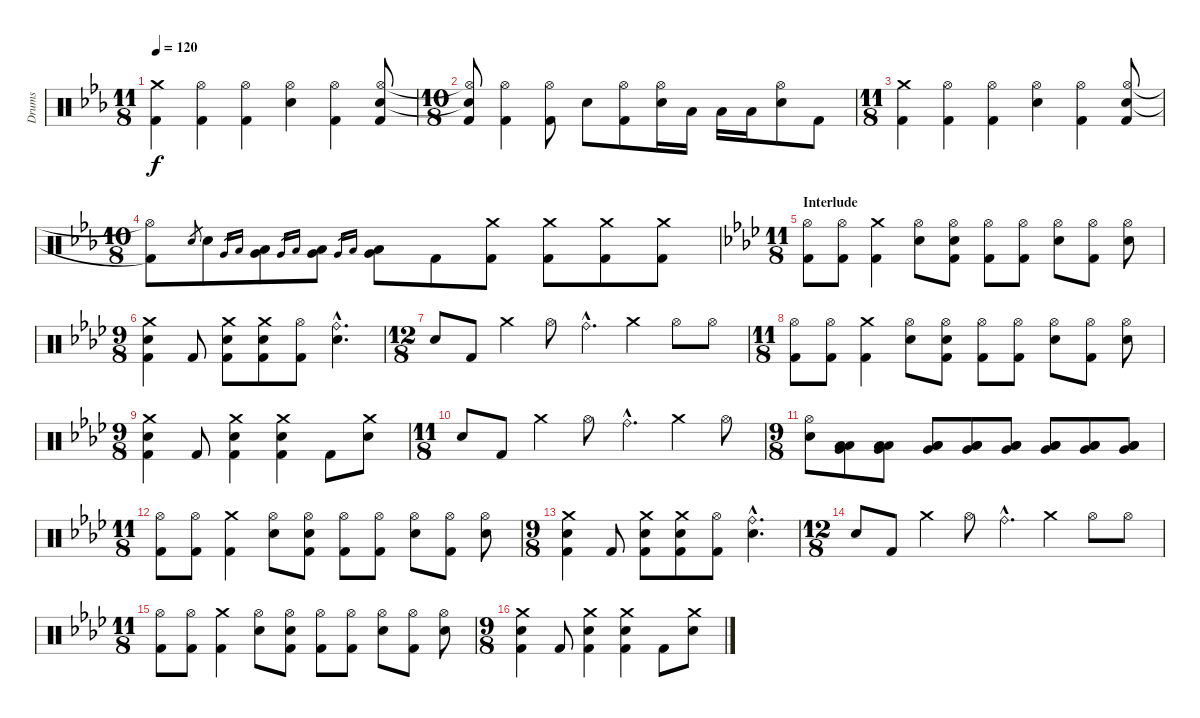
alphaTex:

\track ("Drums" "Drums") {instrument percussion}
\staff {score}
\articulation defaults
\ts (11 8)
\tempo 120
\clef neutral
\ks eb
("Crash medium (hit)" "Kick (hit) 2").4{dy f} ("Hi-Hat (open)" "Kick (hit) 2").4 ("Hi-Hat (open)" "Kick (hit) 2").4 ("Hi-Hat (open)" "Electric Snare (hit)").4 ("Hi-Hat (open)" "Kick (hit) 2").4 ("Hi-Hat (open)" "Electric Snare (hit)" "Kick (hit) 2").8 |
\ts (10 8)
("Hi-Hat (open)"{t} "Snare (hit)"{t} "Kick (hit) 2").8 ("Hi-Hat (open)" "Kick (hit) 2").4 ("Hi-Hat (open)" "Kick (hit) 2").8 "Electric Snare (hit)".8 ("Hi-Hat (open)" "Kick (hit) 2").8 ("Hi-Hat (open)" "Electric Snare (hit)").16 "Low Tom (hit)".16 "Low Tom (hit)".16 "Low Tom (hit)".16 ("Hi-Hat (open)" "Electric Snare (hit)").8 "Kick (hit) 2".8 |
\ts (11 8)
("Crash medium (hit)" "Kick (hit) 2").4 ("Hi-Hat (open)" "Kick (hit) 2").4 ("Hi-Hat (open)" "Kick (hit) 2").4 ("Hi-Hat (open)" "Electric Snare (hit)").4 ("Hi-Hat (open)" "Kick (hit) 2").4 ("Hi-Hat (open)" "Electric Snare (hit)" "Kick (hit) 2").8 |
\ts (10 8)
("Hi-Hat (open)"{t} "Kick (hit) 2"{t}).8 "Electric Snare (hit)".8{gr} "Electric Snare (hit)".8 "Very Low Tom (hit)".16{gr} "Low Tom (hit)".16{gr} ("Low Tom (hit)" "Very Low Tom (hit)").8 "Very Low Tom (hit)".16{gr} "Low Tom (hit)".16{gr} ("Low Tom (hit)" "Very Low Tom (hit)").8 "Very Low Tom (hit)".16{gr} "Low Tom (hit)".16{gr} ("Low Tom (hit)" "Very Low Tom (hit)").8 "Kick (hit) 2".8 ("Crash medium (hit)" "Kick (hit) 2").8 ("Crash medium (hit)" "Kick (hit) 2").8 ("Crash medium (hit)" "Kick (hit) 2").8 ("Crash medium (hit)" "Kick (hit) 2").8 |
\ts (11 8)
\section ("" "Interlude")
\ks ab
("Hi-Hat (open)" "Kick (hit) 2").8 ("Hi-Hat (open)" "Kick (hit) 2").8 ("Crash medium (hit)" "Kick (hit) 2").4 ("Hi-Hat (open)" "Electric Snare (hit)").8 ("Hi-Hat (open)" "Electric Snare (hit)" "Kick (hit) 2").8 ("Hi-Hat (open)" "Kick (hit) 2").8 ("Hi-Hat (open)" "Kick (hit) 2").8 ("Hi-Hat (open)" "Electric Snare (hit)").8 ("Hi-Hat (open)" "Kick (hit) 2").8 ("Hi-Hat (open)" "Electric Snare (hit)").8 |
\ts (9 8)
("Crash medium (hit)" "Electric Snare (hit)" "Kick (hit) 2").4 "Kick (hit) 2".8 ("Crash medium (hit)" "Electric Snare (hit)" "Kick (hit) 2").8 ("Crash medium (hit)" "Electric Snare (hit)" "Kick (hit) 2").8 ("Hi-Hat (open)" "Kick (hit) 2").8 ("Ride (bell)"{hac} "Electric Snare (hit)"{hac}).4{d} |
\ts (12 8)
"Electric Snare (hit)".8 "Kick (hit) 2".8 "Crash medium (hit)".4 "Hi-Hat (open)".8 "Ride (bell)"{hac}.4{d} "Crash medium (hit)".4 "Hi-Hat (open)".8 "Hi-Hat (open)".8 |
\ts (11 8)
("Hi-Hat (open)" "Kick (hit) 2").8 ("Hi-Hat (open)" "Kick (hit) 2").8 ("Crash medium (hit)" "Kick (hit) 2").4 ("Hi-Hat (open)" "Electric Snare (hit)").8 ("Hi-Hat (open)" "Electric Snare (hit)" "Kick (hit) 2").8 ("Hi-Hat (open)" "Kick (hit) 2").8 ("Hi-Hat (open)" "Kick (hit) 2").8 ("Hi-Hat (open)" "Electric Snare (hit)").8 ("Hi-Hat (open)" "Kick (hit) 2").8 ("Hi-Hat (open)" "Electric Snare (hit)").8 |
\ts (9 8)
("Crash medium (hit)" "Electric Snare (hit)" "Kick (hit) 2").4 "Kick (hit) 2".8 ("Crash medium (hit)" "Electric Snare (hit)" "Kick (hit) 2").4 ("Crash medium (hit)" "Electric Snare (hit)" "Kick (hit) 2").4 "Kick (hit) 2".8 ("Crash medium (hit)" "Electric Snare (hit)").8 |
\ts (11 8)
"Electric Snare (hit)".8 "Kick (hit) 2".8 "Crash medium (hit)".4 "Hi-Hat (open)".8 "Ride (bell)"{hac}.4{d} "Crash medium (hit)".4 "Hi-Hat (open)".8 |
\ts (9 8)
("Hi-Hat (open)" "Electric Snare (hit)").8 ("Low Tom (hit)" "Very Low Tom (hit)" "Low Floor Tom (hit)").8 ("Low Tom (hit)" "Very Low Tom (hit)" "Low Floor Tom (hit)").8 ("Low Tom (hit)" "Very Low Tom (hit)" "Low Floor Tom (hit)").8 ("Low Tom (hit)" "Very Low Tom (hit)" "Low Floor Tom (hit)").8 ("Low Tom (hit)" "Very Low Tom (hit)" "Low Floor Tom (hit)").8 ("Low Tom (hit)" "Very Low Tom (hit)" "Low Floor Tom (hit)").8 ("Low Tom (hit)" "Very Low Tom (hit)" "Low Floor Tom (hit)").8 ("Low Tom (hit)" "Very Low Tom (hit)" "Low Floor Tom (hit)").8 |
\ts (11 8)
("Hi-Hat (open)" "Kick (hit) 2").8 ("Hi-Hat (open)" "Kick (hit) 2").8 ("Crash medium (hit)" "Kick (hit) 2").4 ("Hi-Hat (open)" "Electric Snare (hit)").8 ("Hi-Hat (open)" "Electric Snare (hit)" "Kick (hit) 2").8 ("Hi-Hat (open)" "Kick (hit) 2").8 ("Hi-Hat (open)" "Kick (hit) 2").8 ("Hi-Hat (open)" "Electric Snare (hit)").8 ("Hi-Hat (open)" "Kick (hit) 2").8 ("Hi-Hat (open)" "Electric Snare (hit)").8 |
\ts (9 8)
("Crash medium (hit)" "Electric Snare (hit)" "Kick (hit) 2").4 "Kick (hit) 2".8 ("Crash medium (hit)" "Electric Snare (hit)" "Kick (hit) 2").8 ("Crash medium (hit)" "Electric Snare (hit)" "Kick (hit) 2").8 ("Hi-Hat (open)" "Kick (hit) 2").8 ("Ride (bell)"{hac} "Electric Snare (hit)"{hac}).4{d} |
\ts (12 8)
"Electric Snare (hit)".8 "Kick (hit) 2".8 "Crash medium (hit)".4 "Hi-Hat (open)".8 "Ride (bell)"{hac}.4{d} "Crash medium (hit)".4 "Hi-Hat (open)".8 "Hi-Hat (open)".8 |
\ts (11 8)
("Hi-Hat (open)" "Kick (hit) 2").8 ("Hi-Hat (open)" "Kick (hit) 2").8 ("Crash medium (hit)" "Kick (hit) 2").4 ("Hi-Hat (open)" "Electric Snare (hit)").8 ("Hi-Hat (open)" "Electric Snare (hit)" "Kick (hit) 2").8 ("Hi-Hat (open)" "Kick (hit) 2").8 ("Hi-Hat (open)" "Kick (hit) 2").8 ("Hi-Hat (open)" "Electric Snare (hit)").8 ("Hi-Hat (open)" "Kick (hit) 2").8 ("Hi-Hat (open)" "Electric Snare (hit)").8 |
\ts (9 8)
("Crash medium (hit)" "Electric Snare (hit)" "Kick (hit) 2").4 "Kick (hit) 2".8 ("Crash medium (hit)" "Electric Snare (hit)" "Kick (hit) 2").4 ("Crash medium (hit)" "Electric Snare (hit)" "Kick (hit) 2").4 "Kick (hit) 2".8 ("Crash medium (hit)" "Electric Snare (hit)").8
